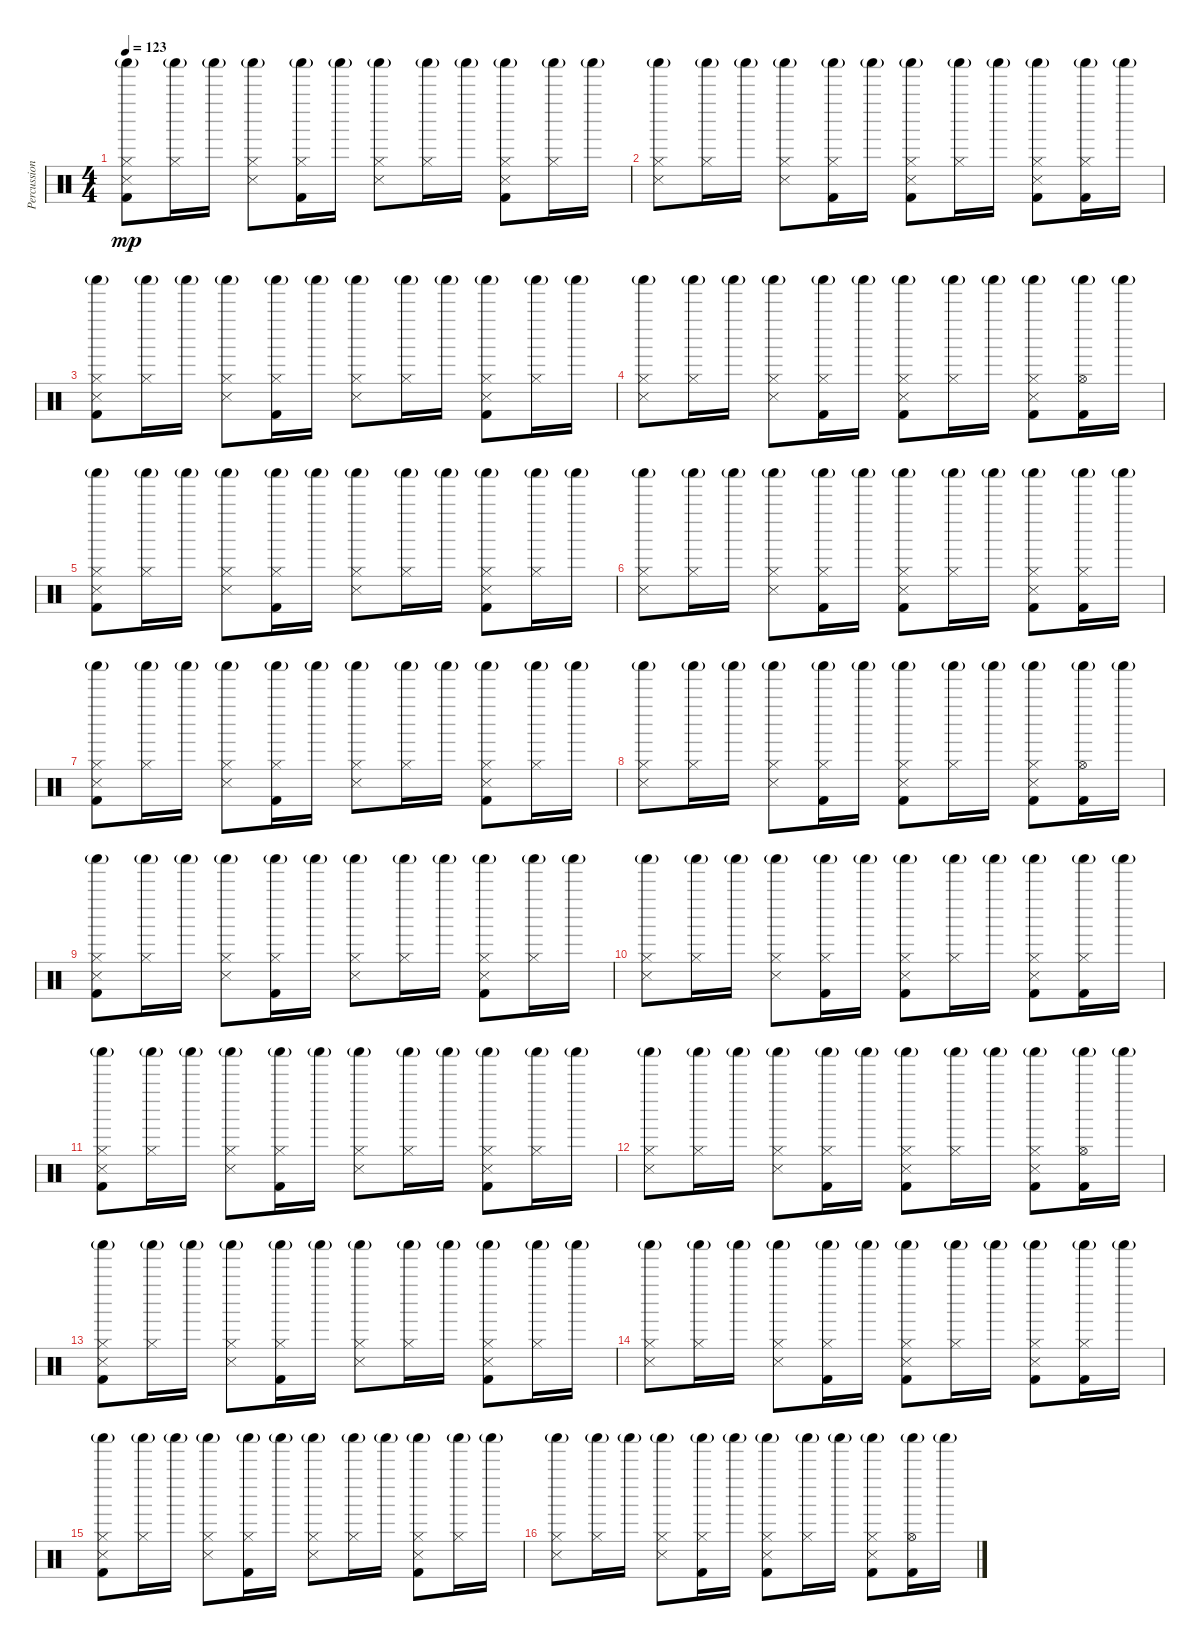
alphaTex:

\track ("Percussions" "Percussion") {instrument percussion}
\staff {score}
\articulation defaults
\ts (4 4)
\tempo 123
\clef neutral
\ks c
("Hi-Hat (closed)" "Shaker (hit)"{g} "Snare (side stick) 3" "Kick (hit) 2").8{dy mp} ("Hi-Hat (closed)" "Shaker (hit)"{g}).16 "Shaker (hit)"{g}.16 ("Hi-Hat (closed)" "Shaker (hit)"{g} "Snare (side stick) 3").8 ("Hi-Hat (closed)" "Shaker (hit)"{g} "Kick (hit) 2").16 "Shaker (hit)"{g}.16 ("Hi-Hat (closed)" "Shaker (hit)"{g} "Snare (side stick) 3").8 ("Hi-Hat (closed)" "Shaker (hit)"{g}).16 "Shaker (hit)"{g}.16 ("Hi-Hat (closed)" "Shaker (hit)"{g} "Snare (side stick) 3" "Kick (hit) 2").8 ("Hi-Hat (closed)" "Shaker (hit)"{g}).16 "Shaker (hit)"{g}.16 |
("Hi-Hat (closed)" "Shaker (hit)"{g} "Snare (side stick) 3").8 ("Hi-Hat (closed)" "Shaker (hit)"{g}).16 "Shaker (hit)"{g}.16 ("Hi-Hat (closed)" "Shaker (hit)"{g} "Snare (side stick) 3").8 ("Hi-Hat (closed)" "Shaker (hit)"{g} "Kick (hit) 2").16 "Shaker (hit)"{g}.16 ("Hi-Hat (closed)" "Shaker (hit)"{g} "Snare (side stick) 3" "Kick (hit) 2").8 ("Hi-Hat (closed)" "Shaker (hit)"{g}).16 "Shaker (hit)"{g}.16 ("Hi-Hat (closed)" "Shaker (hit)"{g} "Snare (side stick) 3" "Kick (hit) 2").8 ("Hi-Hat (closed)" "Shaker (hit)"{g} "Kick (hit) 2").16 "Shaker (hit)"{g}.16 |
("Hi-Hat (closed)" "Shaker (hit)"{g} "Snare (side stick) 3" "Kick (hit) 2").8 ("Hi-Hat (closed)" "Shaker (hit)"{g}).16 "Shaker (hit)"{g}.16 ("Hi-Hat (closed)" "Shaker (hit)"{g} "Snare (side stick) 3").8 ("Hi-Hat (closed)" "Shaker (hit)"{g} "Kick (hit) 2").16 "Shaker (hit)"{g}.16 ("Hi-Hat (closed)" "Shaker (hit)"{g} "Snare (side stick) 3").8 ("Hi-Hat (closed)" "Shaker (hit)"{g}).16 "Shaker (hit)"{g}.16 ("Hi-Hat (closed)" "Shaker (hit)"{g} "Snare (side stick) 3" "Kick (hit) 2").8 ("Hi-Hat (closed)" "Shaker (hit)"{g}).16 "Shaker (hit)"{g}.16 |
("Hi-Hat (closed)" "Shaker (hit)"{g} "Snare (side stick) 3").8 ("Hi-Hat (closed)" "Shaker (hit)"{g}).16 "Shaker (hit)"{g}.16 ("Hi-Hat (closed)" "Shaker (hit)"{g} "Snare (side stick) 3").8 ("Hi-Hat (closed)" "Shaker (hit)"{g} "Kick (hit) 2").16 "Shaker (hit)"{g}.16 ("Hi-Hat (closed)" "Shaker (hit)"{g} "Snare (side stick) 3" "Kick (hit) 2").8 ("Hi-Hat (closed)" "Shaker (hit)"{g}).16 "Shaker (hit)"{g}.16 ("Hi-Hat (closed)" "Shaker (hit)"{g} "Snare (side stick) 3" "Kick (hit) 2").8 ("Hi-Hat (open)" "Shaker (hit)"{g} "Kick (hit) 2").16 "Shaker (hit)"{g}.16 |
("Hi-Hat (closed)" "Shaker (hit)"{g} "Snare (side stick) 3" "Kick (hit) 2").8 ("Hi-Hat (closed)" "Shaker (hit)"{g}).16 "Shaker (hit)"{g}.16 ("Hi-Hat (closed)" "Shaker (hit)"{g} "Snare (side stick) 3").8 ("Hi-Hat (closed)" "Shaker (hit)"{g} "Kick (hit) 2").16 "Shaker (hit)"{g}.16 ("Hi-Hat (closed)" "Shaker (hit)"{g} "Snare (side stick) 3").8 ("Hi-Hat (closed)" "Shaker (hit)"{g}).16 "Shaker (hit)"{g}.16 ("Hi-Hat (closed)" "Shaker (hit)"{g} "Snare (side stick) 3" "Kick (hit) 2").8 ("Hi-Hat (closed)" "Shaker (hit)"{g}).16 "Shaker (hit)"{g}.16 |
("Hi-Hat (closed)" "Shaker (hit)"{g} "Snare (side stick) 3").8 ("Hi-Hat (closed)" "Shaker (hit)"{g}).16 "Shaker (hit)"{g}.16 ("Hi-Hat (closed)" "Shaker (hit)"{g} "Snare (side stick) 3").8 ("Hi-Hat (closed)" "Shaker (hit)"{g} "Kick (hit) 2").16 "Shaker (hit)"{g}.16 ("Hi-Hat (closed)" "Shaker (hit)"{g} "Snare (side stick) 3" "Kick (hit) 2").8 ("Hi-Hat (closed)" "Shaker (hit)"{g}).16 "Shaker (hit)"{g}.16 ("Hi-Hat (closed)" "Shaker (hit)"{g} "Snare (side stick) 3" "Kick (hit) 2").8 ("Hi-Hat (closed)" "Shaker (hit)"{g} "Kick (hit) 2").16 "Shaker (hit)"{g}.16 |
("Hi-Hat (closed)" "Shaker (hit)"{g} "Snare (side stick) 3" "Kick (hit) 2").8 ("Hi-Hat (closed)" "Shaker (hit)"{g}).16 "Shaker (hit)"{g}.16 ("Hi-Hat (closed)" "Shaker (hit)"{g} "Snare (side stick) 3").8 ("Hi-Hat (closed)" "Shaker (hit)"{g} "Kick (hit) 2").16 "Shaker (hit)"{g}.16 ("Hi-Hat (closed)" "Shaker (hit)"{g} "Snare (side stick) 3").8 ("Hi-Hat (closed)" "Shaker (hit)"{g}).16 "Shaker (hit)"{g}.16 ("Hi-Hat (closed)" "Shaker (hit)"{g} "Snare (side stick) 3" "Kick (hit) 2").8 ("Hi-Hat (closed)" "Shaker (hit)"{g}).16 "Shaker (hit)"{g}.16 |
("Hi-Hat (closed)" "Shaker (hit)"{g} "Snare (side stick) 3").8 ("Hi-Hat (closed)" "Shaker (hit)"{g}).16 "Shaker (hit)"{g}.16 ("Hi-Hat (closed)" "Shaker (hit)"{g} "Snare (side stick) 3").8 ("Hi-Hat (closed)" "Shaker (hit)"{g} "Kick (hit) 2").16 "Shaker (hit)"{g}.16 ("Hi-Hat (closed)" "Shaker (hit)"{g} "Snare (side stick) 3" "Kick (hit) 2").8 ("Hi-Hat (closed)" "Shaker (hit)"{g}).16 "Shaker (hit)"{g}.16 ("Hi-Hat (closed)" "Shaker (hit)"{g} "Snare (side stick) 3" "Kick (hit) 2").8 ("Hi-Hat (open)" "Shaker (hit)"{g} "Kick (hit) 2").16 "Shaker (hit)"{g}.16 |
("Hi-Hat (closed)" "Shaker (hit)"{g} "Snare (side stick) 3" "Kick (hit) 2").8 ("Hi-Hat (closed)" "Shaker (hit)"{g}).16 "Shaker (hit)"{g}.16 ("Hi-Hat (closed)" "Shaker (hit)"{g} "Snare (side stick) 3").8 ("Hi-Hat (closed)" "Shaker (hit)"{g} "Kick (hit) 2").16 "Shaker (hit)"{g}.16 ("Hi-Hat (closed)" "Shaker (hit)"{g} "Snare (side stick) 3").8 ("Hi-Hat (closed)" "Shaker (hit)"{g}).16 "Shaker (hit)"{g}.16 ("Hi-Hat (closed)" "Shaker (hit)"{g} "Snare (side stick) 3" "Kick (hit) 2").8 ("Hi-Hat (closed)" "Shaker (hit)"{g}).16 "Shaker (hit)"{g}.16 |
("Hi-Hat (closed)" "Shaker (hit)"{g} "Snare (side stick) 3").8 ("Hi-Hat (closed)" "Shaker (hit)"{g}).16 "Shaker (hit)"{g}.16 ("Hi-Hat (closed)" "Shaker (hit)"{g} "Snare (side stick) 3").8 ("Hi-Hat (closed)" "Shaker (hit)"{g} "Kick (hit) 2").16 "Shaker (hit)"{g}.16 ("Hi-Hat (closed)" "Shaker (hit)"{g} "Snare (side stick) 3" "Kick (hit) 2").8 ("Hi-Hat (closed)" "Shaker (hit)"{g}).16 "Shaker (hit)"{g}.16 ("Hi-Hat (closed)" "Shaker (hit)"{g} "Snare (side stick) 3" "Kick (hit) 2").8 ("Hi-Hat (closed)" "Shaker (hit)"{g} "Kick (hit) 2").16 "Shaker (hit)"{g}.16 |
("Hi-Hat (closed)" "Shaker (hit)"{g} "Snare (side stick) 3" "Kick (hit) 2").8 ("Hi-Hat (closed)" "Shaker (hit)"{g}).16 "Shaker (hit)"{g}.16 ("Hi-Hat (closed)" "Shaker (hit)"{g} "Snare (side stick) 3").8 ("Hi-Hat (closed)" "Shaker (hit)"{g} "Kick (hit) 2").16 "Shaker (hit)"{g}.16 ("Hi-Hat (closed)" "Shaker (hit)"{g} "Snare (side stick) 3").8 ("Hi-Hat (closed)" "Shaker (hit)"{g}).16 "Shaker (hit)"{g}.16 ("Hi-Hat (closed)" "Shaker (hit)"{g} "Snare (side stick) 3" "Kick (hit) 2").8 ("Hi-Hat (closed)" "Shaker (hit)"{g}).16 "Shaker (hit)"{g}.16 |
("Hi-Hat (closed)" "Shaker (hit)"{g} "Snare (side stick) 3").8 ("Hi-Hat (closed)" "Shaker (hit)"{g}).16 "Shaker (hit)"{g}.16 ("Hi-Hat (closed)" "Shaker (hit)"{g} "Snare (side stick) 3").8 ("Hi-Hat (closed)" "Shaker (hit)"{g} "Kick (hit) 2").16 "Shaker (hit)"{g}.16 ("Hi-Hat (closed)" "Shaker (hit)"{g} "Snare (side stick) 3" "Kick (hit) 2").8 ("Hi-Hat (closed)" "Shaker (hit)"{g}).16 "Shaker (hit)"{g}.16 ("Hi-Hat (closed)" "Shaker (hit)"{g} "Snare (side stick) 3" "Kick (hit) 2").8 ("Hi-Hat (open)" "Shaker (hit)"{g} "Kick (hit) 2").16 "Shaker (hit)"{g}.16 |
("Hi-Hat (closed)" "Shaker (hit)"{g} "Snare (side stick) 3" "Kick (hit) 2").8 ("Hi-Hat (closed)" "Shaker (hit)"{g}).16 "Shaker (hit)"{g}.16 ("Hi-Hat (closed)" "Shaker (hit)"{g} "Snare (side stick) 3").8 ("Hi-Hat (closed)" "Shaker (hit)"{g} "Kick (hit) 2").16 "Shaker (hit)"{g}.16 ("Hi-Hat (closed)" "Shaker (hit)"{g} "Snare (side stick) 3").8 ("Hi-Hat (closed)" "Shaker (hit)"{g}).16 "Shaker (hit)"{g}.16 ("Hi-Hat (closed)" "Shaker (hit)"{g} "Snare (side stick) 3" "Kick (hit) 2").8 ("Hi-Hat (closed)" "Shaker (hit)"{g}).16 "Shaker (hit)"{g}.16 |
("Hi-Hat (closed)" "Shaker (hit)"{g} "Snare (side stick) 3").8 ("Hi-Hat (closed)" "Shaker (hit)"{g}).16 "Shaker (hit)"{g}.16 ("Hi-Hat (closed)" "Shaker (hit)"{g} "Snare (side stick) 3").8 ("Hi-Hat (closed)" "Shaker (hit)"{g} "Kick (hit) 2").16 "Shaker (hit)"{g}.16 ("Hi-Hat (closed)" "Shaker (hit)"{g} "Snare (side stick) 3" "Kick (hit) 2").8 ("Hi-Hat (closed)" "Shaker (hit)"{g}).16 "Shaker (hit)"{g}.16 ("Hi-Hat (closed)" "Shaker (hit)"{g} "Snare (side stick) 3" "Kick (hit) 2").8 ("Hi-Hat (closed)" "Shaker (hit)"{g} "Kick (hit) 2").16 "Shaker (hit)"{g}.16 |
("Hi-Hat (closed)" "Shaker (hit)"{g} "Snare (side stick) 3" "Kick (hit) 2").8 ("Hi-Hat (closed)" "Shaker (hit)"{g}).16 "Shaker (hit)"{g}.16 ("Hi-Hat (closed)" "Shaker (hit)"{g} "Snare (side stick) 3").8 ("Hi-Hat (closed)" "Shaker (hit)"{g} "Kick (hit) 2").16 "Shaker (hit)"{g}.16 ("Hi-Hat (closed)" "Shaker (hit)"{g} "Snare (side stick) 3").8 ("Hi-Hat (closed)" "Shaker (hit)"{g}).16 "Shaker (hit)"{g}.16 ("Hi-Hat (closed)" "Shaker (hit)"{g} "Snare (side stick) 3" "Kick (hit) 2").8 ("Hi-Hat (closed)" "Shaker (hit)"{g}).16 "Shaker (hit)"{g}.16 |
("Hi-Hat (closed)" "Shaker (hit)"{g} "Snare (side stick) 3").8 ("Hi-Hat (closed)" "Shaker (hit)"{g}).16 "Shaker (hit)"{g}.16 ("Hi-Hat (closed)" "Shaker (hit)"{g} "Snare (side stick) 3").8 ("Hi-Hat (closed)" "Shaker (hit)"{g} "Kick (hit) 2").16 "Shaker (hit)"{g}.16 ("Hi-Hat (closed)" "Shaker (hit)"{g} "Snare (side stick) 3" "Kick (hit) 2").8 ("Hi-Hat (closed)" "Shaker (hit)"{g}).16 "Shaker (hit)"{g}.16 ("Hi-Hat (closed)" "Shaker (hit)"{g} "Snare (side stick) 3" "Kick (hit) 2").8 ("Hi-Hat (open)" "Shaker (hit)"{g} "Kick (hit) 2").16 "Shaker (hit)"{g}.16
